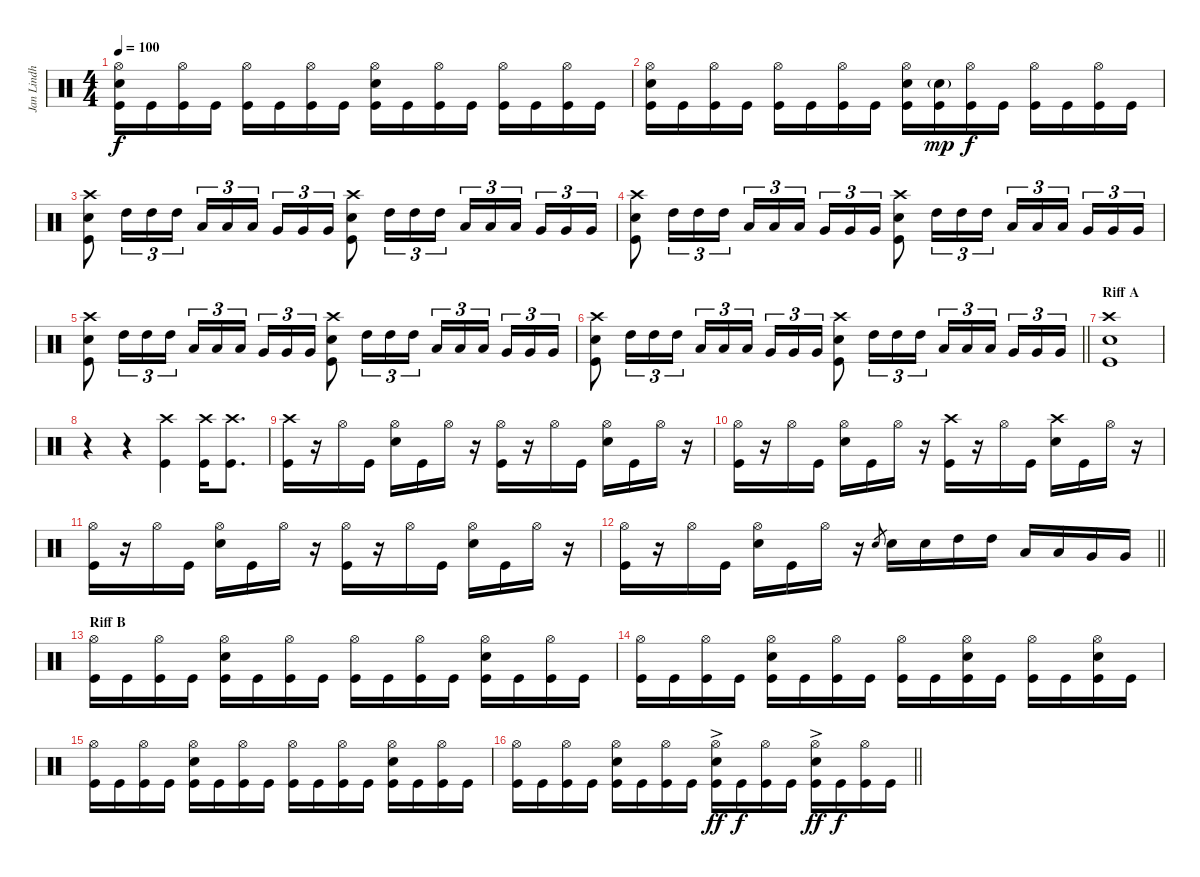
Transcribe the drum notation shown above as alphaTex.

\track ("Jan Lindh" "Jan Lindh") {instrument percussion}
\staff {score}
\articulation defaults
\ts (4 4)
\tempo 100
\clef neutral
\ks c
("Hi-Hat (open)" "Snare (hit) 2" "Kick (hit)").16{dy f} "Kick (hit)".16 ("Hi-Hat (open)" "Kick (hit)").16 "Kick (hit)".16 ("Hi-Hat (open)" "Kick (hit)").16 "Kick (hit)".16 ("Hi-Hat (open)" "Kick (hit)").16 "Kick (hit)".16 ("Hi-Hat (open)" "Snare (hit) 2" "Kick (hit)").16 "Kick (hit)".16 ("Hi-Hat (open)" "Kick (hit)").16 "Kick (hit)".16 ("Hi-Hat (open)" "Kick (hit)").16 "Kick (hit)".16 ("Hi-Hat (open)" "Kick (hit)").16 "Kick (hit)".16 |
("Hi-Hat (open)" "Snare (hit) 2" "Kick (hit)").16 "Kick (hit)".16 ("Hi-Hat (open)" "Kick (hit)").16 "Kick (hit)".16 ("Hi-Hat (open)" "Kick (hit)").16 "Kick (hit)".16 ("Hi-Hat (open)" "Kick (hit)").16 "Kick (hit)".16 ("Hi-Hat (open)" "Snare (hit) 2" "Kick (hit)").16 ("Snare (hit) 2"{g} "Kick (hit)").16{dy mp} ("Hi-Hat (open)" "Kick (hit)").16{dy f} "Kick (hit)".16 ("Hi-Hat (open)" "Kick (hit)").16 "Kick (hit)".16 ("Hi-Hat (open)" "Kick (hit)").16 "Kick (hit)".16 |
("Crash high (hit)" "Snare (hit) 2" "Kick (hit)").8 "High Tom (hit)".16{tu (3 2)} "High Tom (hit)".16{tu (3 2)} "High Tom (hit)".16{tu (3 2)} "Low Tom (hit)".16{tu (3 2)} "Low Tom (hit)".16{tu (3 2)} "Low Tom (hit)".16{tu (3 2) beam splitsecondary} "Very Low Tom (hit)".16{tu (3 2)} "Very Low Tom (hit)".16{tu (3 2)} "Very Low Tom (hit)".16{tu (3 2)} ("Crash high (hit)" "Snare (hit) 2" "Kick (hit)").8 "High Tom (hit)".16{tu (3 2)} "High Tom (hit)".16{tu (3 2)} "High Tom (hit)".16{tu (3 2)} "Low Tom (hit)".16{tu (3 2)} "Low Tom (hit)".16{tu (3 2)} "Low Tom (hit)".16{tu (3 2) beam splitsecondary} "Very Low Tom (hit)".16{tu (3 2)} "Very Low Tom (hit)".16{tu (3 2)} "Very Low Tom (hit)".16{tu (3 2)} |
("Crash high (hit)" "Snare (hit) 2" "Kick (hit)").8 "High Tom (hit)".16{tu (3 2)} "High Tom (hit)".16{tu (3 2)} "High Tom (hit)".16{tu (3 2)} "Low Tom (hit)".16{tu (3 2)} "Low Tom (hit)".16{tu (3 2)} "Low Tom (hit)".16{tu (3 2) beam splitsecondary} "Very Low Tom (hit)".16{tu (3 2)} "Very Low Tom (hit)".16{tu (3 2)} "Very Low Tom (hit)".16{tu (3 2)} ("Crash high (hit)" "Snare (hit) 2" "Kick (hit)").8 "High Tom (hit)".16{tu (3 2)} "High Tom (hit)".16{tu (3 2)} "High Tom (hit)".16{tu (3 2)} "Low Tom (hit)".16{tu (3 2)} "Low Tom (hit)".16{tu (3 2)} "Low Tom (hit)".16{tu (3 2) beam splitsecondary} "Very Low Tom (hit)".16{tu (3 2)} "Very Low Tom (hit)".16{tu (3 2)} "Very Low Tom (hit)".16{tu (3 2)} |
("Crash high (hit)" "Snare (hit) 2" "Kick (hit)").8 "High Tom (hit)".16{tu (3 2)} "High Tom (hit)".16{tu (3 2)} "High Tom (hit)".16{tu (3 2)} "Low Tom (hit)".16{tu (3 2)} "Low Tom (hit)".16{tu (3 2)} "Low Tom (hit)".16{tu (3 2) beam splitsecondary} "Very Low Tom (hit)".16{tu (3 2)} "Very Low Tom (hit)".16{tu (3 2)} "Very Low Tom (hit)".16{tu (3 2)} ("Crash high (hit)" "Snare (hit) 2" "Kick (hit)").8 "High Tom (hit)".16{tu (3 2)} "High Tom (hit)".16{tu (3 2)} "High Tom (hit)".16{tu (3 2)} "Low Tom (hit)".16{tu (3 2)} "Low Tom (hit)".16{tu (3 2)} "Low Tom (hit)".16{tu (3 2) beam splitsecondary} "Very Low Tom (hit)".16{tu (3 2)} "Very Low Tom (hit)".16{tu (3 2)} "Very Low Tom (hit)".16{tu (3 2)} |
\barLineRight lightlight
("Crash high (hit)" "Snare (hit) 2" "Kick (hit)").8 "High Tom (hit)".16{tu (3 2)} "High Tom (hit)".16{tu (3 2)} "High Tom (hit)".16{tu (3 2)} "Low Tom (hit)".16{tu (3 2)} "Low Tom (hit)".16{tu (3 2)} "Low Tom (hit)".16{tu (3 2) beam splitsecondary} "Very Low Tom (hit)".16{tu (3 2)} "Very Low Tom (hit)".16{tu (3 2)} "Very Low Tom (hit)".16{tu (3 2)} ("Crash high (hit)" "Snare (hit) 2" "Kick (hit)").8 "High Tom (hit)".16{tu (3 2)} "High Tom (hit)".16{tu (3 2)} "High Tom (hit)".16{tu (3 2)} "Low Tom (hit)".16{tu (3 2)} "Low Tom (hit)".16{tu (3 2)} "Low Tom (hit)".16{tu (3 2) beam splitsecondary} "Very Low Tom (hit)".16{tu (3 2)} "Very Low Tom (hit)".16{tu (3 2)} "Very Low Tom (hit)".16{tu (3 2)} |
\section ("" "Riff A")
("Crash high (hit)" "Snare (hit) 2" "Kick (hit)").1 |
r.4 r.4 ("Crash high (hit)" "Kick (hit)").4 ("Crash high (hit)" "Kick (hit)").16 ("Crash high (hit)" "Kick (hit)").8{d} |
("Crash high (hit)" "Kick (hit)").16 r.16 "Hi-Hat (open)".16 "Kick (hit)".16 ("Hi-Hat (open)" "Snare (hit) 2").16 "Kick (hit)".16 "Hi-Hat (open)".16 r.16 ("Hi-Hat (open)" "Kick (hit)").16 r.16 "Hi-Hat (open)".16 "Kick (hit)".16 ("Hi-Hat (open)" "Snare (hit) 2").16 "Kick (hit)".16 "Hi-Hat (open)".16 r.16 |
("Hi-Hat (open)" "Kick (hit)").16 r.16 "Hi-Hat (open)".16 "Kick (hit)".16 ("Hi-Hat (open)" "Snare (hit) 2").16 "Kick (hit)".16 "Hi-Hat (open)".16 r.16 ("Crash high (hit)" "Kick (hit)").16 r.16 "Hi-Hat (open)".16 "Kick (hit)".16 ("Crash high (hit)" "Snare (hit) 2").16 "Kick (hit)".16 "Hi-Hat (open)".16 r.16 |
("Hi-Hat (open)" "Kick (hit)").16 r.16 "Hi-Hat (open)".16 "Kick (hit)".16 ("Hi-Hat (open)" "Snare (hit) 2").16 "Kick (hit)".16 "Hi-Hat (open)".16 r.16 ("Hi-Hat (open)" "Kick (hit)").16 r.16 "Hi-Hat (open)".16 "Kick (hit)".16 ("Hi-Hat (open)" "Snare (hit) 2").16 "Kick (hit)".16 "Hi-Hat (open)".16 r.16 |
\barLineRight lightlight
("Hi-Hat (open)" "Kick (hit)").16 r.16 "Hi-Hat (open)".16 "Kick (hit)".16 ("Hi-Hat (open)" "Snare (hit) 2").16 "Kick (hit)".16 "Hi-Hat (open)".16 r.16 "Snare (hit) 2".8{gr} "Snare (hit) 2".16 "Snare (hit) 2".16 "High Tom (hit)".16 "High Tom (hit)".16 "Low Tom (hit)".16 "Low Tom (hit)".16 "Very Low Tom (hit)".16 "Very Low Tom (hit)".16 |
\section ("" "Riff B")
("Hi-Hat (open)" "Kick (hit)").16 "Kick (hit)".16 ("Hi-Hat (open)" "Kick (hit)").16 "Kick (hit)".16 ("Hi-Hat (open)" "Snare (hit) 2" "Kick (hit)").16 "Kick (hit)".16 ("Hi-Hat (open)" "Kick (hit)").16 "Kick (hit)".16 ("Hi-Hat (open)" "Kick (hit)").16 "Kick (hit)".16 ("Hi-Hat (open)" "Kick (hit)").16 "Kick (hit)".16 ("Hi-Hat (open)" "Snare (hit) 2" "Kick (hit)").16 "Kick (hit)".16 ("Hi-Hat (open)" "Kick (hit)").16 "Kick (hit)".16 |
("Hi-Hat (open)" "Kick (hit)").16 "Kick (hit)".16 ("Hi-Hat (open)" "Kick (hit)").16 "Kick (hit)".16 ("Hi-Hat (open)" "Snare (hit) 2" "Kick (hit)").16 "Kick (hit)".16 ("Hi-Hat (open)" "Kick (hit)").16 "Kick (hit)".16 ("Hi-Hat (open)" "Kick (hit)").16 "Kick (hit)".16 ("Hi-Hat (open)" "Snare (hit) 2" "Kick (hit)").16 "Kick (hit)".16 ("Hi-Hat (open)" "Kick (hit)").16 "Kick (hit)".16 ("Hi-Hat (open)" "Snare (hit) 2" "Kick (hit)").16 "Kick (hit)".16 |
("Hi-Hat (open)" "Kick (hit)").16 "Kick (hit)".16 ("Hi-Hat (open)" "Kick (hit)").16 "Kick (hit)".16 ("Hi-Hat (open)" "Snare (hit) 2" "Kick (hit)").16 "Kick (hit)".16 ("Hi-Hat (open)" "Kick (hit)").16 "Kick (hit)".16 ("Hi-Hat (open)" "Kick (hit)").16 "Kick (hit)".16 ("Hi-Hat (open)" "Kick (hit)").16 "Kick (hit)".16 ("Hi-Hat (open)" "Snare (hit) 2" "Kick (hit)").16 "Kick (hit)".16 ("Hi-Hat (open)" "Kick (hit)").16 "Kick (hit)".16 |
\barLineRight lightlight
("Hi-Hat (open)" "Kick (hit)").16 "Kick (hit)".16 ("Hi-Hat (open)" "Kick (hit)").16 "Kick (hit)".16 ("Hi-Hat (open)" "Snare (hit) 2" "Kick (hit)").16 "Kick (hit)".16 ("Hi-Hat (open)" "Kick (hit)").16 "Kick (hit)".16 ("Hi-Hat (open)" "Snare (hit) 2"{ac} "Kick (hit)").16{dy ff} "Kick (hit)".16{dy f} ("Hi-Hat (open)" "Kick (hit)").16 "Kick (hit)".16 ("Hi-Hat (open)" "Snare (hit) 2"{ac} "Kick (hit)").16{dy ff} "Kick (hit)".16{dy f} ("Hi-Hat (open)" "Kick (hit)").16 "Kick (hit)".16
